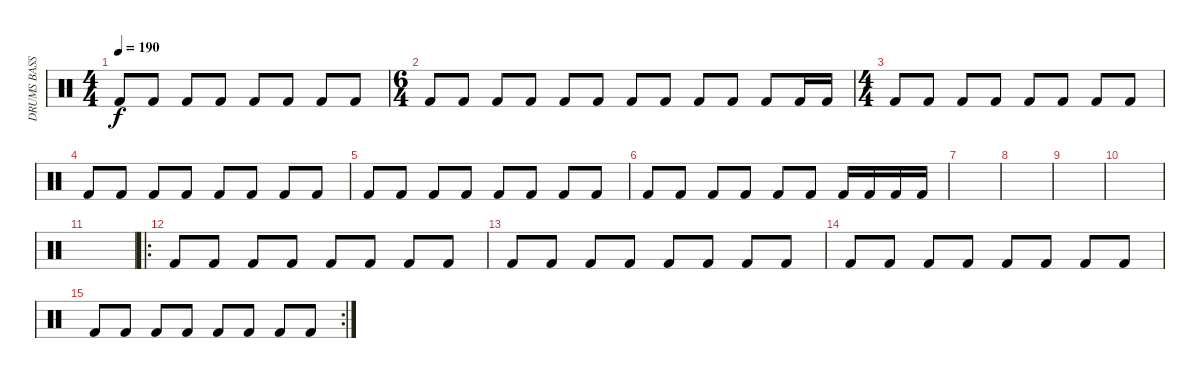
\track ("DRUMS BASS" "DRUMS BASS") {instrument percussion}
\staff {score}
\articulation defaults
\ts (4 4)
\tempo 190
\clef neutral
\ks c "Kick (hit) 2".8{dy f} "Kick (hit) 2".8 "Kick (hit) 2".8 "Kick (hit) 2".8 "Kick (hit) 2".8 "Kick (hit) 2".8 "Kick (hit) 2".8 "Kick (hit) 2".8
|
\ts (6 4)
"Kick (hit) 2".8 "Kick (hit) 2".8 "Kick (hit) 2".8 "Kick (hit) 2".8 "Kick (hit) 2".8 "Kick (hit) 2".8 "Kick (hit) 2".8 "Kick (hit) 2".8 "Kick (hit) 2".8 "Kick (hit) 2".8 "Kick (hit) 2".8 "Kick (hit) 2".16 "Kick (hit) 2".16 |
\ts (4 4)
"Kick (hit) 2".8 "Kick (hit) 2".8 "Kick (hit) 2".8 "Kick (hit) 2".8 "Kick (hit) 2".8 "Kick (hit) 2".8 "Kick (hit) 2".8 "Kick (hit) 2".8 |
"Kick (hit) 2".8 "Kick (hit) 2".8 "Kick (hit) 2".8 "Kick (hit) 2".8 "Kick (hit) 2".8 "Kick (hit) 2".8 "Kick (hit) 2".8 "Kick (hit) 2".8 |
"Kick (hit) 2".8 "Kick (hit) 2".8 "Kick (hit) 2".8 "Kick (hit) 2".8 "Kick (hit) 2".8 "Kick (hit) 2".8 "Kick (hit) 2".8 "Kick (hit) 2".8 |
"Kick (hit) 2".8 "Kick (hit) 2".8 "Kick (hit) 2".8 "Kick (hit) 2".8 "Kick (hit) 2".8 "Kick (hit) 2".8 "Kick (hit) 2".16 "Kick (hit) 2".16 "Kick (hit) 2".16 "Kick (hit) 2".16 |
|
|
|
|
|
\ro "Kick (hit) 2".8 "Kick (hit) 2".8 "Kick (hit) 2".8 "Kick (hit) 2".8 "Kick (hit) 2".8 "Kick (hit) 2".8 "Kick (hit) 2".8 "Kick (hit) 2".8
|
"Kick (hit) 2".8 "Kick (hit) 2".8 "Kick (hit) 2".8 "Kick (hit) 2".8 "Kick (hit) 2".8 "Kick (hit) 2".8 "Kick (hit) 2".8 "Kick (hit) 2".8 |
"Kick (hit) 2".8 "Kick (hit) 2".8 "Kick (hit) 2".8 "Kick (hit) 2".8 "Kick (hit) 2".8 "Kick (hit) 2".8 "Kick (hit) 2".8 "Kick (hit) 2".8 |
\rc 2 "Kick (hit) 2".8 "Kick (hit) 2".8 "Kick (hit) 2".8 "Kick (hit) 2".8 "Kick (hit) 2".8 "Kick (hit) 2".8 "Kick (hit) 2".8 "Kick (hit) 2".8
